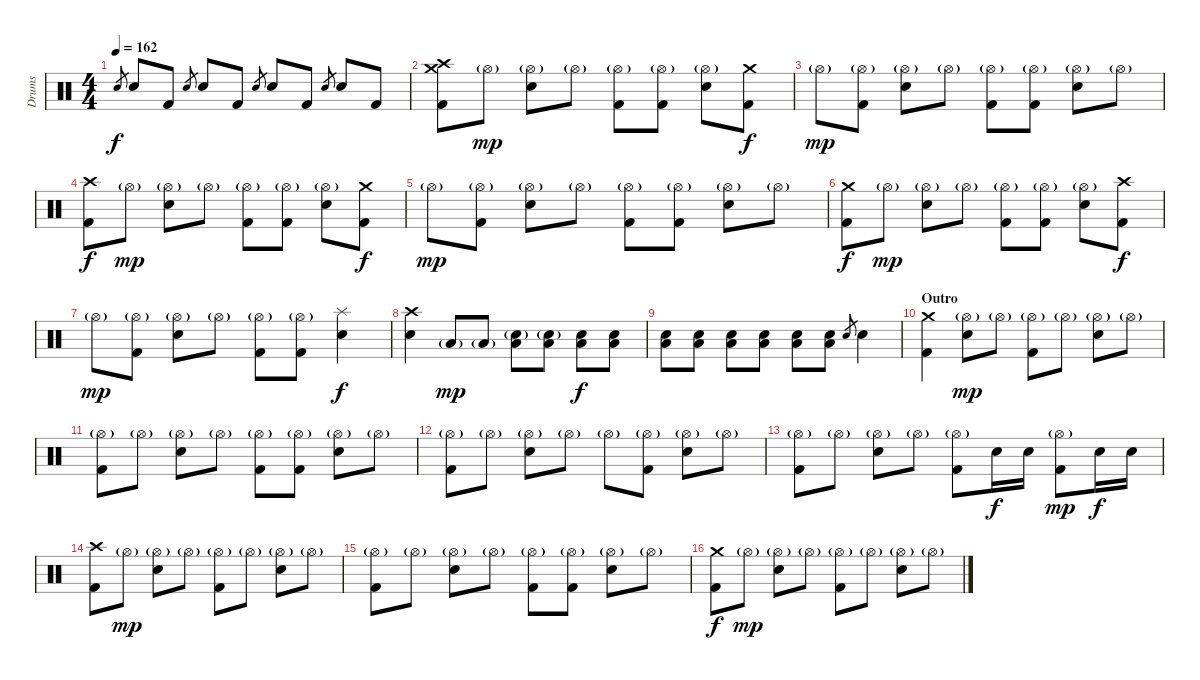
\track ("Drums" "Drums") {instrument percussion}
\staff {score}
\articulation defaults
\ts (4 4)
\tempo 162
\clef neutral
\ks c "Snare (hit) 2".8{gr dy f} "Snare (hit) 2".8 "Kick (hit) 2".8 "Snare (hit) 2".8{gr} "Snare (hit) 2".8 "Kick (hit) 2".8 "Snare (hit) 2".8{gr} "Snare (hit) 2".8 "Kick (hit) 2".8 "Snare (hit) 2".8{gr} "Snare (hit) 2".8 "Kick (hit) 2".8
|
("Crash medium (hit)" "Crash high (hit)" "Kick (hit) 2").8 "Hi-Hat (open)"{g}.8{dy mp} ("Hi-Hat (open)"{g} "Snare (hit) 2").8 "Hi-Hat (open)"{g}.8 ("Hi-Hat (open)"{g} "Kick (hit) 2").8 ("Hi-Hat (open)"{g} "Kick (hit) 2").8 ("Hi-Hat (open)"{g} "Snare (hit) 2").8 ("Crash medium (hit)" "Kick (hit) 2").8{dy f} |
"Hi-Hat (open)"{g}.8{dy mp} ("Hi-Hat (open)"{g} "Kick (hit) 2").8 ("Hi-Hat (open)"{g} "Snare (hit) 2").8 "Hi-Hat (open)"{g}.8 ("Hi-Hat (open)"{g} "Kick (hit) 2").8 ("Hi-Hat (open)"{g} "Kick (hit) 2").8 ("Hi-Hat (open)"{g} "Snare (hit) 2").8 "Hi-Hat (open)"{g}.8 |
("Crash high (hit)" "Kick (hit) 2").8{dy f} "Hi-Hat (open)"{g}.8{dy mp} ("Hi-Hat (open)"{g} "Snare (hit) 2").8 "Hi-Hat (open)"{g}.8 ("Hi-Hat (open)"{g} "Kick (hit) 2").8 ("Hi-Hat (open)"{g} "Kick (hit) 2").8 ("Hi-Hat (open)"{g} "Snare (hit) 2").8 ("Crash medium (hit)" "Kick (hit) 2").8{dy f} |
"Hi-Hat (open)"{g}.8{dy mp} ("Hi-Hat (open)"{g} "Kick (hit) 2").8 ("Hi-Hat (open)"{g} "Snare (hit) 2").8 "Hi-Hat (open)"{g}.8 ("Hi-Hat (open)"{g} "Kick (hit) 2").8 ("Hi-Hat (open)"{g} "Kick (hit) 2").8 ("Hi-Hat (open)"{g} "Snare (hit) 2").8 "Hi-Hat (open)"{g}.8 |
("Crash medium (hit)" "Kick (hit) 2").8{dy f} "Hi-Hat (open)"{g}.8{dy mp} ("Hi-Hat (open)"{g} "Snare (hit) 2").8 "Hi-Hat (open)"{g}.8 ("Hi-Hat (open)"{g} "Kick (hit) 2").8 ("Hi-Hat (open)"{g} "Kick (hit) 2").8 ("Hi-Hat (open)"{g} "Snare (hit) 2").8 ("Crash high (hit)" "Kick (hit) 2").8{dy f} |
"Hi-Hat (open)"{g}.8{dy mp} ("Hi-Hat (open)"{g} "Kick (hit) 2").8 ("Hi-Hat (open)"{g} "Snare (hit) 2").8 "Hi-Hat (open)"{g}.8 ("Hi-Hat (open)"{g} "Kick (hit) 2").8 ("Hi-Hat (open)"{g} "Kick (hit) 2").8 ("Splash (hit)" "Snare (hit) 2").4{dy f} |
("Crash high (hit)" "Snare (hit) 2").4 "Low Floor Tom (hit)"{g}.8{dy mp volume 12} "Low Floor Tom (hit)"{g}.8{volume 14} ("Low Floor Tom (hit)" "Snare (hit) 2"{g}).8 ("Low Floor Tom (hit)" "Snare (hit) 2"{g}).8 ("Low Floor Tom (hit)" "Snare (hit) 2").8{dy f} ("Low Floor Tom (hit)" "Snare (hit) 2").8 |
("Low Floor Tom (hit)" "Snare (hit) 2").8 ("Low Floor Tom (hit)" "Snare (hit) 2").8 ("Low Floor Tom (hit)" "Snare (hit) 2").8 ("Low Floor Tom (hit)" "Snare (hit) 2").8 ("Low Floor Tom (hit)" "Snare (hit) 2").8 ("Low Floor Tom (hit)" "Snare (hit) 2").8 "Snare (hit) 2".8{gr} "Snare (hit) 2".4 |
\section ("" "Outro")
("Crash medium (hit)" "Kick (hit) 2").4 ("Hi-Hat (open)"{g} "Snare (hit) 2").8{dy mp} "Hi-Hat (open)"{g}.8 ("Hi-Hat (open)"{g} "Kick (hit) 2").8 "Hi-Hat (open)"{g}.8 ("Hi-Hat (open)"{g} "Snare (hit) 2").8 "Hi-Hat (open)"{g}.8 |
("Hi-Hat (open)"{g} "Kick (hit) 2").8 "Hi-Hat (open)"{g}.8 ("Hi-Hat (open)"{g} "Snare (hit) 2").8 "Hi-Hat (open)"{g}.8 ("Hi-Hat (open)"{g} "Kick (hit) 2").8 ("Hi-Hat (open)"{g} "Kick (hit) 2").8 ("Hi-Hat (open)"{g} "Snare (hit) 2").8 "Hi-Hat (open)"{g}.8 |
("Hi-Hat (open)"{g} "Kick (hit) 2").8 "Hi-Hat (open)"{g}.8 ("Hi-Hat (open)"{g} "Snare (hit) 2").8 "Hi-Hat (open)"{g}.8 "Hi-Hat (open)"{g}.8 ("Hi-Hat (open)"{g} "Kick (hit) 2").8 ("Hi-Hat (open)"{g} "Snare (hit) 2").8 "Hi-Hat (open)"{g}.8 |
("Hi-Hat (open)"{g} "Kick (hit) 2").8 "Hi-Hat (open)"{g}.8 ("Hi-Hat (open)"{g} "Snare (hit) 2").8 "Hi-Hat (open)"{g}.8 ("Hi-Hat (open)"{g} "Kick (hit) 2").8 "Snare (hit) 2".16{dy f} "Snare (hit) 2".16 ("Hi-Hat (open)"{g} "Kick (hit) 2").8{dy mp} "Snare (hit) 2".16{dy f} "Snare (hit) 2".16 |
("Crash high (hit)" "Kick (hit) 2").8 "Hi-Hat (open)"{g}.8{dy mp} ("Hi-Hat (open)"{g} "Snare (hit) 2").8 "Hi-Hat (open)"{g}.8 ("Hi-Hat (open)"{g} "Kick (hit) 2").8 "Hi-Hat (open)"{g}.8 ("Hi-Hat (open)"{g} "Snare (hit) 2").8 "Hi-Hat (open)"{g}.8 |
("Hi-Hat (open)"{g} "Kick (hit) 2").8 "Hi-Hat (open)"{g}.8 ("Hi-Hat (open)"{g} "Snare (hit) 2").8 "Hi-Hat (open)"{g}.8 ("Hi-Hat (open)"{g} "Kick (hit) 2").8 ("Hi-Hat (open)"{g} "Kick (hit) 2").8 ("Hi-Hat (open)"{g} "Snare (hit) 2").8 "Hi-Hat (open)"{g}.8 |
("Crash medium (hit)" "Kick (hit) 2").8{dy f} "Hi-Hat (open)"{g}.8{dy mp} ("Hi-Hat (open)"{g} "Snare (hit) 2").8 "Hi-Hat (open)"{g}.8 ("Hi-Hat (open)"{g} "Kick (hit) 2").8 "Hi-Hat (open)"{g}.8 ("Hi-Hat (open)"{g} "Snare (hit) 2").8 "Hi-Hat (open)"{g}.8
